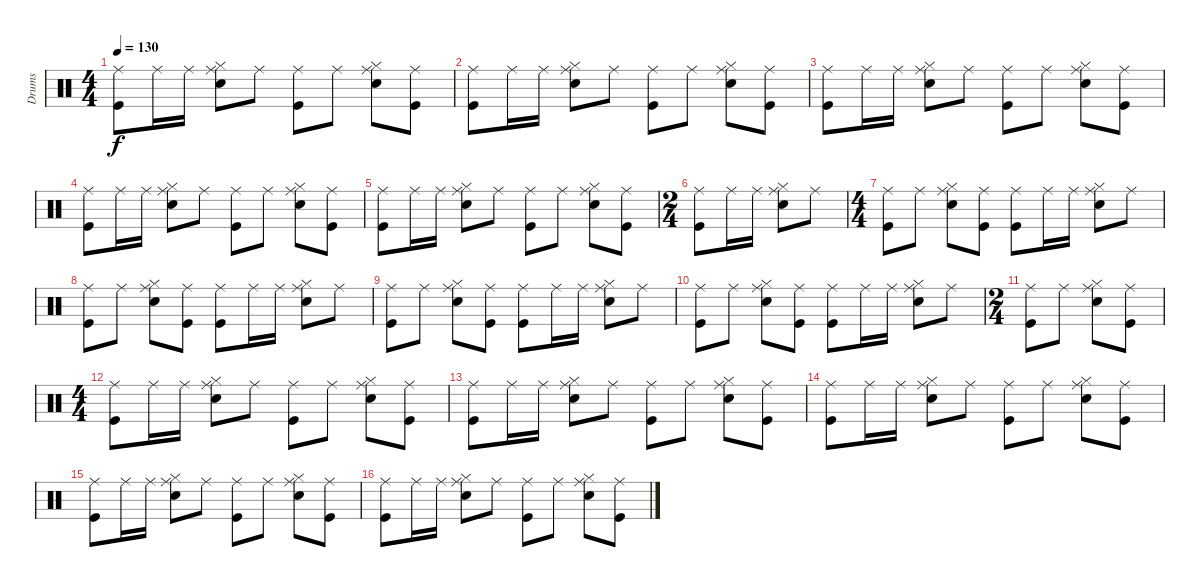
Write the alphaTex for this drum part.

\track ("Drums" "Drums") {instrument percussion}
\staff {score}
\articulation defaults
\ts (4 4)
\tempo 130
\clef neutral
\ks c
("Kick (hit)" "Ride (middle)").8{dy f} "Ride (middle)".16 "Ride (middle)".16 ("Snare (hit) 2" "Hi-Hat (closed)" "Ride (middle)").8 "Ride (middle)".8 ("Kick (hit)" "Ride (middle)").8 "Ride (middle)".8 ("Snare (hit) 2" "Hi-Hat (closed)" "Ride (middle)").8 ("Kick (hit)" "Ride (middle)").8 |
("Kick (hit)" "Ride (middle)").8 "Ride (middle)".16 "Ride (middle)".16 ("Snare (hit) 2" "Hi-Hat (closed)" "Ride (middle)").8 "Ride (middle)".8 ("Kick (hit)" "Ride (middle)").8 "Ride (middle)".8 ("Snare (hit) 2" "Hi-Hat (closed)" "Ride (middle)").8 ("Kick (hit)" "Ride (middle)").8 |
("Kick (hit)" "Ride (middle)").8 "Ride (middle)".16 "Ride (middle)".16 ("Snare (hit) 2" "Hi-Hat (closed)" "Ride (middle)").8 "Ride (middle)".8 ("Kick (hit)" "Ride (middle)").8 "Ride (middle)".8 ("Snare (hit) 2" "Hi-Hat (closed)" "Ride (middle)").8 ("Kick (hit)" "Ride (middle)").8 |
("Kick (hit)" "Ride (middle)").8 "Ride (middle)".16 "Ride (middle)".16 ("Snare (hit) 2" "Hi-Hat (closed)" "Ride (middle)").8 "Ride (middle)".8 ("Kick (hit)" "Ride (middle)").8 "Ride (middle)".8 ("Snare (hit) 2" "Hi-Hat (closed)" "Ride (middle)").8 ("Kick (hit)" "Ride (middle)").8 |
("Kick (hit)" "Ride (middle)").8 "Ride (middle)".16 "Ride (middle)".16 ("Snare (hit) 2" "Hi-Hat (closed)" "Ride (middle)").8 "Ride (middle)".8 ("Kick (hit)" "Ride (middle)").8 "Ride (middle)".8 ("Snare (hit) 2" "Hi-Hat (closed)" "Ride (middle)").8 ("Kick (hit)" "Ride (middle)").8 |
\ts (2 4)
("Kick (hit)" "Ride (middle)").8 "Ride (middle)".16 "Ride (middle)".16 ("Snare (hit) 2" "Hi-Hat (closed)" "Ride (middle)").8 "Ride (middle)".8 |
\ts (4 4)
("Kick (hit)" "Ride (middle)").8 "Ride (middle)".8 ("Snare (hit) 2" "Hi-Hat (closed)" "Ride (middle)").8 ("Kick (hit)" "Ride (middle)").8 ("Kick (hit)" "Ride (middle)").8 "Ride (middle)".16 "Ride (middle)".16 ("Snare (hit) 2" "Hi-Hat (closed)" "Ride (middle)").8 "Ride (middle)".8 |
("Kick (hit)" "Ride (middle)").8 "Ride (middle)".8 ("Snare (hit) 2" "Hi-Hat (closed)" "Ride (middle)").8 ("Kick (hit)" "Ride (middle)").8 ("Kick (hit)" "Ride (middle)").8 "Ride (middle)".16 "Ride (middle)".16 ("Snare (hit) 2" "Hi-Hat (closed)" "Ride (middle)").8 "Ride (middle)".8 |
("Kick (hit)" "Ride (middle)").8 "Ride (middle)".8 ("Snare (hit) 2" "Hi-Hat (closed)" "Ride (middle)").8 ("Kick (hit)" "Ride (middle)").8 ("Kick (hit)" "Ride (middle)").8 "Ride (middle)".16 "Ride (middle)".16 ("Snare (hit) 2" "Hi-Hat (closed)" "Ride (middle)").8 "Ride (middle)".8 |
("Kick (hit)" "Ride (middle)").8 "Ride (middle)".8 ("Snare (hit) 2" "Hi-Hat (closed)" "Ride (middle)").8 ("Kick (hit)" "Ride (middle)").8 ("Kick (hit)" "Ride (middle)").8 "Ride (middle)".16 "Ride (middle)".16 ("Snare (hit) 2" "Hi-Hat (closed)" "Ride (middle)").8 "Ride (middle)".8 |
\ts (2 4)
("Kick (hit)" "Ride (middle)").8 "Ride (middle)".8 ("Snare (hit) 2" "Hi-Hat (closed)" "Ride (middle)").8 ("Kick (hit)" "Ride (middle)").8 |
\ts (4 4)
("Kick (hit)" "Ride (middle)").8 "Ride (middle)".16 "Ride (middle)".16 ("Snare (hit) 2" "Hi-Hat (closed)" "Ride (middle)").8 "Ride (middle)".8 ("Kick (hit)" "Ride (middle)").8 "Ride (middle)".8 ("Snare (hit) 2" "Hi-Hat (closed)" "Ride (middle)").8 ("Kick (hit)" "Ride (middle)").8 |
("Kick (hit)" "Ride (middle)").8 "Ride (middle)".16 "Ride (middle)".16 ("Snare (hit) 2" "Hi-Hat (closed)" "Ride (middle)").8 "Ride (middle)".8 ("Kick (hit)" "Ride (middle)").8 "Ride (middle)".8 ("Snare (hit) 2" "Hi-Hat (closed)" "Ride (middle)").8 ("Kick (hit)" "Ride (middle)").8 |
("Kick (hit)" "Ride (middle)").8 "Ride (middle)".16 "Ride (middle)".16 ("Snare (hit) 2" "Hi-Hat (closed)" "Ride (middle)").8 "Ride (middle)".8 ("Kick (hit)" "Ride (middle)").8 "Ride (middle)".8 ("Snare (hit) 2" "Hi-Hat (closed)" "Ride (middle)").8 ("Kick (hit)" "Ride (middle)").8 |
("Kick (hit)" "Ride (middle)").8 "Ride (middle)".16 "Ride (middle)".16 ("Snare (hit) 2" "Hi-Hat (closed)" "Ride (middle)").8 "Ride (middle)".8 ("Kick (hit)" "Ride (middle)").8 "Ride (middle)".8 ("Snare (hit) 2" "Hi-Hat (closed)" "Ride (middle)").8 ("Kick (hit)" "Ride (middle)").8 |
("Kick (hit)" "Ride (middle)").8 "Ride (middle)".16 "Ride (middle)".16 ("Snare (hit) 2" "Hi-Hat (closed)" "Ride (middle)").8 "Ride (middle)".8 ("Kick (hit)" "Ride (middle)").8 "Ride (middle)".8 ("Snare (hit) 2" "Hi-Hat (closed)" "Ride (middle)").8 ("Kick (hit)" "Ride (middle)").8
